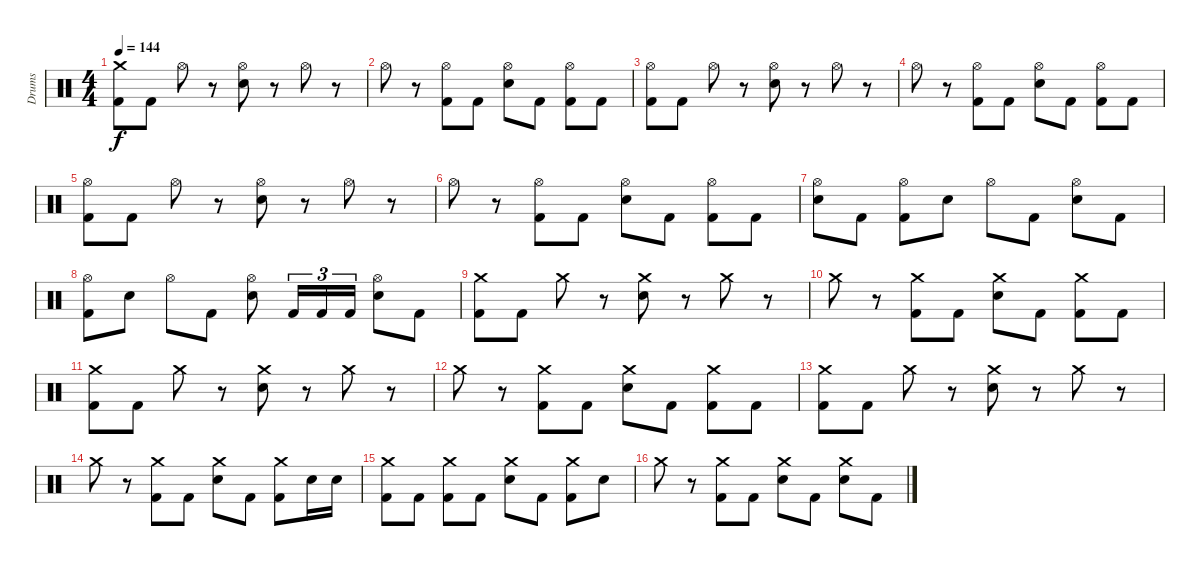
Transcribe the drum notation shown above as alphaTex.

\track ("Drums" "Drums") {instrument percussion}
\staff {score}
\articulation defaults
\ts (4 4)
\tempo 144
\clef neutral
\ks c
("Crash medium (hit)" "Kick (hit) 2").8{dy f} "Kick (hit) 2".8 "Hi-Hat (open)".8 r.8 ("Hi-Hat (open)" "Electric Snare (hit)").8 r.8 "Hi-Hat (open)".8 r.8 |
"Hi-Hat (open)".8 r.8 ("Hi-Hat (open)" "Kick (hit) 2").8 "Kick (hit) 2".8 ("Hi-Hat (open)" "Electric Snare (hit)").8 "Kick (hit) 2".8 ("Hi-Hat (open)" "Kick (hit) 2").8 "Kick (hit) 2".8 |
("Hi-Hat (open)" "Kick (hit) 2").8 "Kick (hit) 2".8 "Hi-Hat (open)".8 r.8 ("Hi-Hat (open)" "Electric Snare (hit)").8 r.8 "Hi-Hat (open)".8 r.8 |
"Hi-Hat (open)".8 r.8 ("Hi-Hat (open)" "Kick (hit) 2").8 "Kick (hit) 2".8 ("Hi-Hat (open)" "Electric Snare (hit)").8 "Kick (hit) 2".8 ("Hi-Hat (open)" "Kick (hit) 2").8 "Kick (hit) 2".8 |
("Hi-Hat (open)" "Kick (hit) 2").8 "Kick (hit) 2".8 "Hi-Hat (open)".8 r.8 ("Hi-Hat (open)" "Electric Snare (hit)").8 r.8 "Hi-Hat (open)".8 r.8 |
"Hi-Hat (open)".8 r.8 ("Hi-Hat (open)" "Kick (hit) 2").8 "Kick (hit) 2".8 ("Hi-Hat (open)" "Electric Snare (hit)").8 "Kick (hit) 2".8 ("Hi-Hat (open)" "Kick (hit) 2").8 "Kick (hit) 2".8 |
("Hi-Hat (open)" "Electric Snare (hit)").8 "Kick (hit) 2".8 ("Hi-Hat (open)" "Kick (hit) 2").8 "Electric Snare (hit)".8 "Hi-Hat (open)".8 "Kick (hit) 2".8 ("Hi-Hat (open)" "Electric Snare (hit)").8 "Kick (hit) 2".8 |
("Hi-Hat (open)" "Kick (hit) 2").8 "Electric Snare (hit)".8 "Hi-Hat (open)".8 "Kick (hit) 2".8 ("Hi-Hat (open)" "Electric Snare (hit)").8 "Kick (hit) 2".16{tu (3 2)} "Kick (hit) 2".16{tu (3 2)} "Kick (hit) 2".16{tu (3 2)} ("Hi-Hat (open)" "Electric Snare (hit)").8 "Kick (hit) 2".8 |
("Crash medium (hit)" "Kick (hit) 2").8 "Kick (hit) 2".8 "Crash medium (hit)".8 r.8 ("Crash medium (hit)" "Electric Snare (hit)").8 r.8 "Crash medium (hit)".8 r.8 |
"Crash medium (hit)".8 r.8 ("Crash medium (hit)" "Kick (hit) 2").8 "Kick (hit) 2".8 ("Crash medium (hit)" "Electric Snare (hit)").8 "Kick (hit) 2".8 ("Crash medium (hit)" "Kick (hit) 2").8 "Kick (hit) 2".8 |
("Crash medium (hit)" "Kick (hit) 2").8 "Kick (hit) 2".8 "Crash medium (hit)".8 r.8 ("Crash medium (hit)" "Electric Snare (hit)").8 r.8 "Crash medium (hit)".8 r.8 |
"Crash medium (hit)".8 r.8 ("Crash medium (hit)" "Kick (hit) 2").8 "Kick (hit) 2".8 ("Crash medium (hit)" "Electric Snare (hit)").8 "Kick (hit) 2".8 ("Crash medium (hit)" "Kick (hit) 2").8 "Kick (hit) 2".8 |
("Crash medium (hit)" "Kick (hit) 2").8 "Kick (hit) 2".8 "Crash medium (hit)".8 r.8 ("Crash medium (hit)" "Electric Snare (hit)").8 r.8 "Crash medium (hit)".8 r.8 |
"Crash medium (hit)".8 r.8 ("Crash medium (hit)" "Kick (hit) 2").8 "Kick (hit) 2".8 ("Crash medium (hit)" "Electric Snare (hit)").8 "Kick (hit) 2".8 ("Crash medium (hit)" "Kick (hit) 2").8 "Electric Snare (hit)".16 "Electric Snare (hit)".16 |
("Crash medium (hit)" "Kick (hit) 2").8 "Kick (hit) 2".8 ("Crash medium (hit)" "Kick (hit) 2").8 "Kick (hit) 2".8 ("Crash medium (hit)" "Electric Snare (hit)").8 "Kick (hit) 2".8 ("Crash medium (hit)" "Kick (hit) 2").8 "Electric Snare (hit)".8 |
"Crash medium (hit)".8 r.8 ("Crash medium (hit)" "Kick (hit) 2").8 "Kick (hit) 2".8 ("Crash medium (hit)" "Electric Snare (hit)").8 "Kick (hit) 2".8 ("Crash medium (hit)" "Electric Snare (hit)").8 "Kick (hit) 2".8
